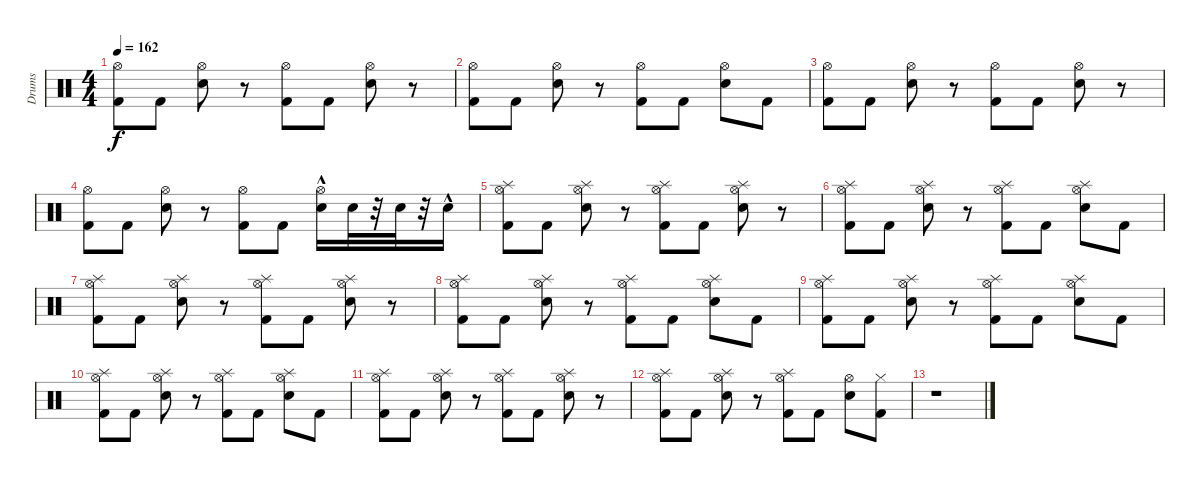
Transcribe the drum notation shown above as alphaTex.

\track ("Drums" "Drums") {instrument percussion}
\staff {score}
\articulation defaults
\ts (4 4)
\tempo 162
\clef neutral
\ks c
("Hi-Hat (open)" "Kick (hit) 2").8{dy f} "Kick (hit) 2".8 ("Hi-Hat (open)" "Electric Snare (hit)").8 r.8 ("Hi-Hat (open)" "Kick (hit) 2").8 "Kick (hit) 2".8 ("Hi-Hat (open)" "Electric Snare (hit)").8 r.8 |
("Hi-Hat (open)" "Kick (hit) 2").8 "Kick (hit) 2".8 ("Hi-Hat (open)" "Electric Snare (hit)").8 r.8 ("Hi-Hat (open)" "Kick (hit) 2").8 "Kick (hit) 2".8 ("Hi-Hat (open)" "Electric Snare (hit)").8 "Kick (hit) 2".8 |
("Hi-Hat (open)" "Kick (hit) 2").8 "Kick (hit) 2".8 ("Hi-Hat (open)" "Electric Snare (hit)").8 r.8 ("Hi-Hat (open)" "Kick (hit) 2").8 "Kick (hit) 2".8 ("Hi-Hat (open)" "Electric Snare (hit)").8 r.8 |
("Hi-Hat (open)" "Kick (hit) 2").8 "Kick (hit) 2".8 ("Hi-Hat (open)" "Electric Snare (hit)").8 r.8 ("Hi-Hat (open)" "Kick (hit) 2").8 "Kick (hit) 2".8 ("Hi-Hat (open)"{hac} "Electric Snare (hit)").16 "Electric Snare (hit)".32 r.32 "Electric Snare (hit)".32 r.32 "Electric Snare (hit)"{hac}.16 |
("Kick (hit) 2" "Splash (hit)" "Hi-Hat (open)").8 "Kick (hit) 2".8 ("Electric Snare (hit)" "Splash (hit)" "Hi-Hat (open)").8 r.8 ("Kick (hit) 2" "Splash (hit)" "Hi-Hat (open)").8 "Kick (hit) 2".8 ("Electric Snare (hit)" "Splash (hit)" "Hi-Hat (open)").8 r.8 |
("Hi-Hat (open)" "Kick (hit) 2" "Splash (hit)").8 "Kick (hit) 2".8 ("Hi-Hat (open)" "Electric Snare (hit)" "Splash (hit)").8 r.8 ("Hi-Hat (open)" "Kick (hit) 2" "Splash (hit)").8 "Kick (hit) 2".8 ("Hi-Hat (open)" "Electric Snare (hit)" "Splash (hit)").8 "Kick (hit) 2".8 |
("Kick (hit) 2" "Splash (hit)" "Hi-Hat (open)").8 "Kick (hit) 2".8 ("Electric Snare (hit)" "Splash (hit)" "Hi-Hat (open)").8 r.8 ("Kick (hit) 2" "Splash (hit)" "Hi-Hat (open)").8 "Kick (hit) 2".8 ("Electric Snare (hit)" "Splash (hit)" "Hi-Hat (open)").8 r.8 |
("Hi-Hat (open)" "Kick (hit) 2" "Splash (hit)").8 "Kick (hit) 2".8 ("Hi-Hat (open)" "Electric Snare (hit)" "Splash (hit)").8 r.8 ("Hi-Hat (open)" "Kick (hit) 2" "Splash (hit)").8 "Kick (hit) 2".8 ("Hi-Hat (open)" "Electric Snare (hit)" "Splash (hit)").8 "Kick (hit) 2".8 |
("Hi-Hat (open)" "Kick (hit) 2" "Splash (hit)").8 "Kick (hit) 2".8 ("Hi-Hat (open)" "Electric Snare (hit)" "Splash (hit)").8 r.8 ("Hi-Hat (open)" "Kick (hit) 2" "Splash (hit)").8 "Kick (hit) 2".8 ("Hi-Hat (open)" "Electric Snare (hit)" "Splash (hit)").8 "Kick (hit) 2".8 |
("Hi-Hat (open)" "Kick (hit) 2" "Splash (hit)").8 "Kick (hit) 2".8 ("Hi-Hat (open)" "Electric Snare (hit)" "Splash (hit)").8 r.8 ("Hi-Hat (open)" "Kick (hit) 2" "Splash (hit)").8 "Kick (hit) 2".8 ("Hi-Hat (open)" "Electric Snare (hit)" "Splash (hit)").8 "Kick (hit) 2".8 |
("Kick (hit) 2" "Splash (hit)" "Hi-Hat (open)").8 "Kick (hit) 2".8 ("Electric Snare (hit)" "Splash (hit)" "Hi-Hat (open)").8 r.8 ("Kick (hit) 2" "Splash (hit)" "Hi-Hat (open)").8 "Kick (hit) 2".8 ("Electric Snare (hit)" "Splash (hit)" "Hi-Hat (open)").8 r.8 |
("Hi-Hat (open)" "Kick (hit) 2" "Splash (hit)").8 "Kick (hit) 2".8 ("Hi-Hat (open)" "Electric Snare (hit)" "Splash (hit)").8 r.8 ("Hi-Hat (open)" "Kick (hit) 2" "Splash (hit)").8 "Kick (hit) 2".8 ("Hi-Hat (open)" "Electric Snare (hit)").8 ("Kick (hit) 2" "Hi-Hat (closed)").8 |
r.1
